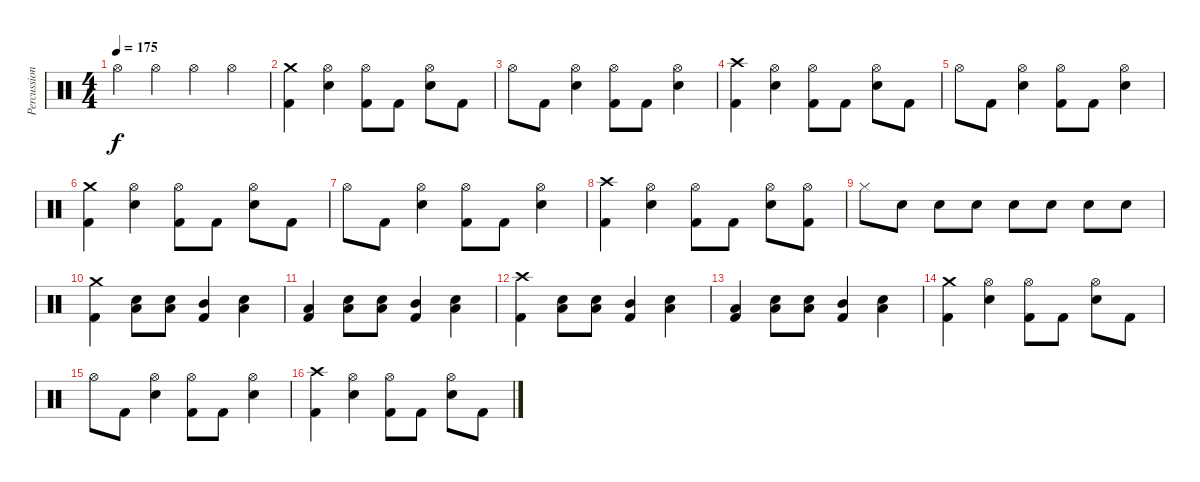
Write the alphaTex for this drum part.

\track ("Percussion" "Percussion") {instrument percussion}
\staff {score}
\articulation defaults
\ts (4 4)
\tempo 175
\clef neutral
\ks c "Hi-Hat (open)".4{dy f} "Hi-Hat (open)".4 "Hi-Hat (open)".4 "Hi-Hat (open)".4
|
("Crash medium (hit)" "Kick (hit) 2").4 ("Hi-Hat (open)" "Electric Snare (hit)").4 ("Hi-Hat (open)" "Kick (hit) 2").8 "Kick (hit) 2".8 ("Hi-Hat (open)" "Electric Snare (hit)").8 "Kick (hit) 2".8 |
"Hi-Hat (open)".8 "Kick (hit) 2".8 ("Hi-Hat (open)" "Electric Snare (hit)").4 ("Hi-Hat (open)" "Kick (hit) 2").8 "Kick (hit) 2".8 ("Hi-Hat (open)" "Electric Snare (hit)").4 |
("Crash high (hit)" "Kick (hit) 2").4 ("Hi-Hat (open)" "Electric Snare (hit)").4 ("Hi-Hat (open)" "Kick (hit) 2").8 "Kick (hit) 2".8 ("Hi-Hat (open)" "Electric Snare (hit)").8 "Kick (hit) 2".8 |
"Hi-Hat (open)".8 "Kick (hit) 2".8 ("Hi-Hat (open)" "Electric Snare (hit)").4 ("Hi-Hat (open)" "Kick (hit) 2").8 "Kick (hit) 2".8 ("Hi-Hat (open)" "Electric Snare (hit)").4 |
("Crash medium (hit)" "Kick (hit) 2").4 ("Hi-Hat (open)" "Electric Snare (hit)").4 ("Hi-Hat (open)" "Kick (hit) 2").8 "Kick (hit) 2".8 ("Hi-Hat (open)" "Electric Snare (hit)").8 "Kick (hit) 2".8 |
"Hi-Hat (open)".8 "Kick (hit) 2".8 ("Hi-Hat (open)" "Electric Snare (hit)").4 ("Hi-Hat (open)" "Kick (hit) 2").8 "Kick (hit) 2".8 ("Hi-Hat (open)" "Electric Snare (hit)").4 |
("Crash high (hit)" "Kick (hit) 2").4 ("Hi-Hat (open)" "Electric Snare (hit)").4 ("Hi-Hat (open)" "Kick (hit) 2").8 "Kick (hit) 2".8 ("Hi-Hat (open)" "Electric Snare (hit)").8 ("Hi-Hat (open)" "Kick (hit) 2").8 |
"Hi-Hat (closed)".8 "Electric Snare (hit)".8 "Electric Snare (hit)".8 "Electric Snare (hit)".8 "Electric Snare (hit)".8 "Electric Snare (hit)".8 "Electric Snare (hit)".8 "Electric Snare (hit)".8 |
("Crash medium (hit)" "Kick (hit) 2").4 ("Low Tom (hit)" "Electric Snare (hit)").8 ("Low Tom (hit)" "Electric Snare (hit)").8 ("Mid Tom (hit)" "Kick (hit) 2").4 ("Low Tom (hit)" "Electric Snare (hit)").4 |
("Low Tom (hit)" "Kick (hit) 2").4 ("Low Tom (hit)" "Electric Snare (hit)").8 ("Low Tom (hit)" "Electric Snare (hit)").8 ("Mid Tom (hit)" "Kick (hit) 2").4 ("Low Tom (hit)" "Electric Snare (hit)").4 |
("Crash high (hit)" "Kick (hit) 2").4 ("Low Tom (hit)" "Electric Snare (hit)").8 ("Low Tom (hit)" "Electric Snare (hit)").8 ("Mid Tom (hit)" "Kick (hit) 2").4 ("Low Tom (hit)" "Electric Snare (hit)").4 |
("Low Tom (hit)" "Kick (hit) 2").4 ("Low Tom (hit)" "Electric Snare (hit)").8 ("Low Tom (hit)" "Electric Snare (hit)").8 ("Mid Tom (hit)" "Kick (hit) 2").4 ("Low Tom (hit)" "Electric Snare (hit)").4 |
("Crash medium (hit)" "Kick (hit) 2").4 ("Hi-Hat (open)" "Electric Snare (hit)").4 ("Hi-Hat (open)" "Kick (hit) 2").8 "Kick (hit) 2".8 ("Hi-Hat (open)" "Electric Snare (hit)").8 "Kick (hit) 2".8 |
"Hi-Hat (open)".8 "Kick (hit) 2".8 ("Hi-Hat (open)" "Electric Snare (hit)").4 ("Hi-Hat (open)" "Kick (hit) 2").8 "Kick (hit) 2".8 ("Hi-Hat (open)" "Electric Snare (hit)").4 |
("Crash high (hit)" "Kick (hit) 2").4 ("Hi-Hat (open)" "Electric Snare (hit)").4 ("Hi-Hat (open)" "Kick (hit) 2").8 "Kick (hit) 2".8 ("Hi-Hat (open)" "Electric Snare (hit)").8 "Kick (hit) 2".8
